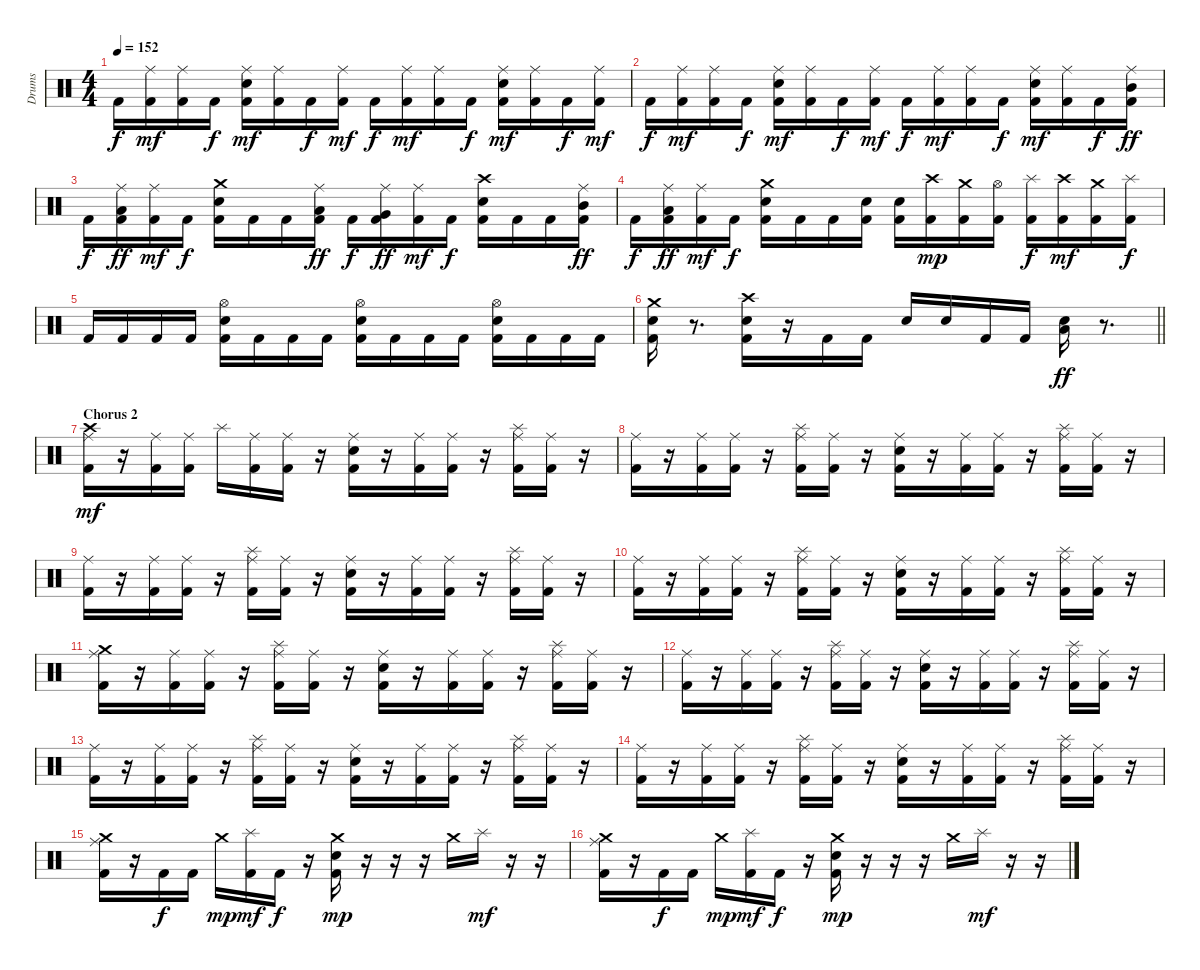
\track ("Drums" "Drums") {instrument percussion}
\staff {score}
\articulation defaults
\ts (4 4)
\tempo 152
\clef neutral
\ks c "Kick (hit) 2".16{dy f}
("Ride (middle)" "Kick (hit) 2").16{dy mf} ("Ride (middle)" "Kick (hit) 2").16 "Kick (hit) 2".16{dy f} ("Ride (middle)" "Snare (hit) 2" "Kick (hit) 2").16{dy mf} ("Ride (middle)" "Kick (hit) 2").16 "Kick (hit) 2".16{dy f} ("Ride (middle)" "Kick (hit) 2").16{dy mf} "Kick (hit) 2".16{dy f} ("Ride (middle)" "Kick (hit) 2").16{dy mf} ("Ride (middle)" "Kick (hit) 2").16 "Kick (hit) 2".16{dy f} ("Ride (middle)" "Snare (hit) 2" "Kick (hit) 2").16{dy mf} ("Ride (middle)" "Kick (hit) 2").16 "Kick (hit) 2".16{dy f} ("Ride (middle)" "Kick (hit) 2").16{dy mf} |
"Kick (hit) 2".16{dy f} ("Ride (middle)" "Kick (hit) 2").16{dy mf} ("Ride (middle)" "Kick (hit) 2").16 "Kick (hit) 2".16{dy f} ("Ride (middle)" "Snare (hit) 2" "Kick (hit) 2").16{dy mf} ("Ride (middle)" "Kick (hit) 2").16 "Kick (hit) 2".16{dy f} ("Ride (middle)" "Kick (hit) 2").16{dy mf} "Kick (hit) 2".16{dy f} ("Ride (middle)" "Kick (hit) 2").16{dy mf} ("Ride (middle)" "Kick (hit) 2").16 "Kick (hit) 2".16{dy f} ("Ride (middle)" "Snare (hit) 2" "Kick (hit) 2").16{dy mf} ("Ride (middle)" "Kick (hit) 2").16 "Kick (hit) 2".16{dy f} ("Ride (middle)" "Mid Tom (hit)" "Kick (hit) 2").16{dy ff} |
"Kick (hit) 2".16{dy f} ("Ride (middle)" "Low Tom (hit)" "Kick (hit) 2").16{dy ff} ("Ride (middle)" "Kick (hit) 2").16{dy mf} "Kick (hit) 2".16{dy f} ("Crash medium (hit)" "Snare (hit) 2" "Kick (hit) 2").16 "Kick (hit) 2".16 "Kick (hit) 2".16 ("Ride (middle)" "Low Tom (hit)" "Kick (hit) 2").16{dy ff} "Kick (hit) 2".16{dy f} ("Ride (middle)" "Very Low Tom (hit)" "Kick (hit) 2").16{dy ff} ("Ride (middle)" "Kick (hit) 2").16{dy mf} "Kick (hit) 2".16{dy f} ("Crash high (hit)" "Snare (hit) 2" "Kick (hit) 2").16 "Kick (hit) 2".16 "Kick (hit) 2".16 ("Ride (middle)" "Mid Tom (hit)" "Kick (hit) 2").16{dy ff} |
"Kick (hit) 2".16{dy f} ("Ride (middle)" "Low Tom (hit)" "Kick (hit) 2").16{dy ff} ("Ride (middle)" "Kick (hit) 2").16{dy mf} "Kick (hit) 2".16{dy f} ("Crash medium (hit)" "Snare (hit) 2" "Kick (hit) 2").16 "Kick (hit) 2".16 "Kick (hit) 2".16 ("Snare (hit) 2" "Kick (hit) 2").16 ("Snare (hit) 2" "Kick (hit) 2").16 ("Crash high (hit)" "Kick (hit) 2").16{dy mp} ("Crash medium (hit)" "Kick (hit) 2").16 ("Hi-Hat (open)" "Kick (hit) 2").16 ("Splash (hit)" "Kick (hit) 2").16{dy f} ("Crash high (hit)" "Kick (hit) 2").16{dy mf} ("Crash medium (hit)" "Kick (hit) 2").16 ("Splash (hit)" "Kick (hit) 2").16{dy f} |
"Kick (hit) 2".16 "Kick (hit) 2".16 "Kick (hit) 2".16 "Kick (hit) 2".16 ("Hi-Hat (open)" "Snare (hit) 2" "Kick (hit) 2").16 "Kick (hit) 2".16 "Kick (hit) 2".16 "Kick (hit) 2".16 ("Hi-Hat (open)" "Snare (hit) 2" "Kick (hit) 2").16 "Kick (hit) 2".16 "Kick (hit) 2".16 "Kick (hit) 2".16 ("Hi-Hat (open)" "Snare (hit) 2" "Kick (hit) 2").16 "Kick (hit) 2".16 "Kick (hit) 2".16 "Kick (hit) 2".16 |
\barLineRight lightlight
("Crash medium (hit)" "Snare (hit) 2" "Kick (hit) 2").16 r.8{d} ("Crash high (hit)" "Snare (hit) 2" "Kick (hit) 2").16 r.16 "Kick (hit) 2".16 "Kick (hit) 2".16 "Snare (hit) 2".16 "Snare (hit) 2".16 "Kick (hit) 2".16 "Kick (hit) 2".16 ("Low Floor Tom (hit)" "Snare (hit) 2").16{dy ff} r.8{d} |
\section ("" "Chorus 2")
("Crash high (hit)" "Ride (middle)" "Kick (hit) 2").16{dy mf} r.16 ("Ride (middle)" "Kick (hit) 2").16 ("Ride (middle)" "Kick (hit) 2").16 "Splash (hit)".16 ("Ride (middle)" "Kick (hit) 2").16 ("Ride (middle)" "Kick (hit) 2").16 r.16 ("Ride (middle)" "Snare (hit) 2" "Kick (hit) 2").16 r.16 ("Ride (middle)" "Kick (hit) 2").16 ("Ride (middle)" "Kick (hit) 2").16 r.16 ("Splash (hit)" "Ride (middle)" "Kick (hit) 2").16 ("Ride (middle)" "Kick (hit) 2").16 r.16 |
("Ride (middle)" "Kick (hit) 2").16 r.16 ("Ride (middle)" "Kick (hit) 2").16 ("Ride (middle)" "Kick (hit) 2").16 r.16 ("Splash (hit)" "Ride (middle)" "Kick (hit) 2").16 ("Ride (middle)" "Kick (hit) 2").16 r.16 ("Ride (middle)" "Snare (hit) 2" "Kick (hit) 2").16 r.16 ("Ride (middle)" "Kick (hit) 2").16 ("Ride (middle)" "Kick (hit) 2").16 r.16 ("Splash (hit)" "Ride (middle)" "Kick (hit) 2").16 ("Ride (middle)" "Kick (hit) 2").16 r.16 |
("Ride (middle)" "Kick (hit) 2").16 r.16 ("Ride (middle)" "Kick (hit) 2").16 ("Ride (middle)" "Kick (hit) 2").16 r.16 ("Splash (hit)" "Ride (middle)" "Kick (hit) 2").16 ("Ride (middle)" "Kick (hit) 2").16 r.16 ("Ride (middle)" "Snare (hit) 2" "Kick (hit) 2").16 r.16 ("Ride (middle)" "Kick (hit) 2").16 ("Ride (middle)" "Kick (hit) 2").16 r.16 ("Splash (hit)" "Ride (middle)" "Kick (hit) 2").16 ("Ride (middle)" "Kick (hit) 2").16 r.16 |
("Ride (middle)" "Kick (hit) 2").16 r.16 ("Ride (middle)" "Kick (hit) 2").16 ("Ride (middle)" "Kick (hit) 2").16 r.16 ("Splash (hit)" "Ride (middle)" "Kick (hit) 2").16 ("Ride (middle)" "Kick (hit) 2").16 r.16 ("Ride (middle)" "Snare (hit) 2" "Kick (hit) 2").16 r.16 ("Ride (middle)" "Kick (hit) 2").16 ("Ride (middle)" "Kick (hit) 2").16 r.16 ("Splash (hit)" "Ride (middle)" "Kick (hit) 2").16 ("Ride (middle)" "Kick (hit) 2").16 r.16 |
("Crash medium (hit)" "Ride (middle)" "Kick (hit) 2").16 r.16 ("Ride (middle)" "Kick (hit) 2").16 ("Ride (middle)" "Kick (hit) 2").16 r.16 ("Splash (hit)" "Ride (middle)" "Kick (hit) 2").16 ("Ride (middle)" "Kick (hit) 2").16 r.16 ("Ride (middle)" "Snare (hit) 2" "Kick (hit) 2").16 r.16 ("Ride (middle)" "Kick (hit) 2").16 ("Ride (middle)" "Kick (hit) 2").16 r.16 ("Splash (hit)" "Ride (middle)" "Kick (hit) 2").16 ("Ride (middle)" "Kick (hit) 2").16 r.16 |
("Ride (middle)" "Kick (hit) 2").16 r.16 ("Ride (middle)" "Kick (hit) 2").16 ("Ride (middle)" "Kick (hit) 2").16 r.16 ("Splash (hit)" "Ride (middle)" "Kick (hit) 2").16 ("Ride (middle)" "Kick (hit) 2").16 r.16 ("Ride (middle)" "Snare (hit) 2" "Kick (hit) 2").16 r.16 ("Ride (middle)" "Kick (hit) 2").16 ("Ride (middle)" "Kick (hit) 2").16 r.16 ("Splash (hit)" "Ride (middle)" "Kick (hit) 2").16 ("Ride (middle)" "Kick (hit) 2").16 r.16 |
("Ride (middle)" "Kick (hit) 2").16 r.16 ("Ride (middle)" "Kick (hit) 2").16 ("Ride (middle)" "Kick (hit) 2").16 r.16 ("Splash (hit)" "Ride (middle)" "Kick (hit) 2").16 ("Ride (middle)" "Kick (hit) 2").16 r.16 ("Ride (middle)" "Snare (hit) 2" "Kick (hit) 2").16 r.16 ("Ride (middle)" "Kick (hit) 2").16 ("Ride (middle)" "Kick (hit) 2").16 r.16 ("Splash (hit)" "Ride (middle)" "Kick (hit) 2").16 ("Ride (middle)" "Kick (hit) 2").16 r.16 |
("Ride (middle)" "Kick (hit) 2").16 r.16 ("Ride (middle)" "Kick (hit) 2").16 ("Ride (middle)" "Kick (hit) 2").16 r.16 ("Splash (hit)" "Ride (middle)" "Kick (hit) 2").16 ("Ride (middle)" "Kick (hit) 2").16 r.16 ("Ride (middle)" "Snare (hit) 2" "Kick (hit) 2").16 r.16 ("Ride (middle)" "Kick (hit) 2").16 ("Ride (middle)" "Kick (hit) 2").16 r.16 ("Splash (hit)" "Ride (middle)" "Kick (hit) 2").16 ("Ride (middle)" "Kick (hit) 2").16 r.16 |
("Crash medium (hit)" "Ride (middle)" "Kick (hit) 2").16 r.16 "Kick (hit) 2".16{dy f} "Kick (hit) 2".16 "Crash medium (hit)".16{dy mp} ("Splash (hit)" "Kick (hit) 2").16{dy mf} "Kick (hit) 2".16{dy f} r.16 ("Crash medium (hit)" "Snare (hit) 2" "Kick (hit) 2").16{dy mp} r.16 r.16 r.16 "Crash medium (hit)".16 "Splash (hit)".16{dy mf} r.16 r.16 |
("Crash medium (hit)" "Ride (middle)" "Kick (hit) 2").16 r.16 "Kick (hit) 2".16{dy f} "Kick (hit) 2".16 "Crash medium (hit)".16{dy mp} ("Splash (hit)" "Kick (hit) 2").16{dy mf} "Kick (hit) 2".16{dy f} r.16 ("Crash medium (hit)" "Snare (hit) 2" "Kick (hit) 2").16{dy mp} r.16 r.16 r.16 "Crash medium (hit)".16 "Splash (hit)".16{dy mf} r.16 r.16
